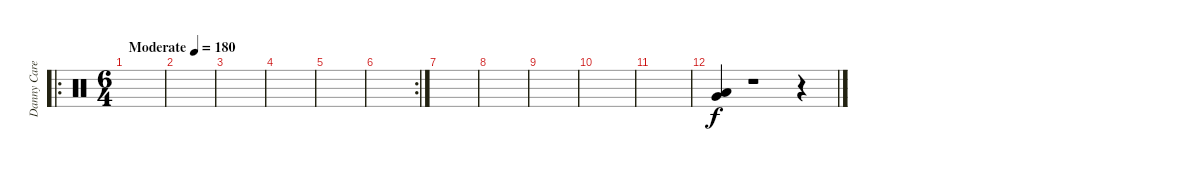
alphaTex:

\track ("Danny Carey" "Danny Care") {instrument percussion}
\staff {score}
\articulation defaults
\ro
\ts (6 4)
\tempo (180 "Moderate")
\clef neutral
\ks c
|
|
|
|
|
\rc 2
|
|
|
|
|
|
("Very Low Tom (hit)" "Low Floor Tom (hit)").4 r.1 r.4
